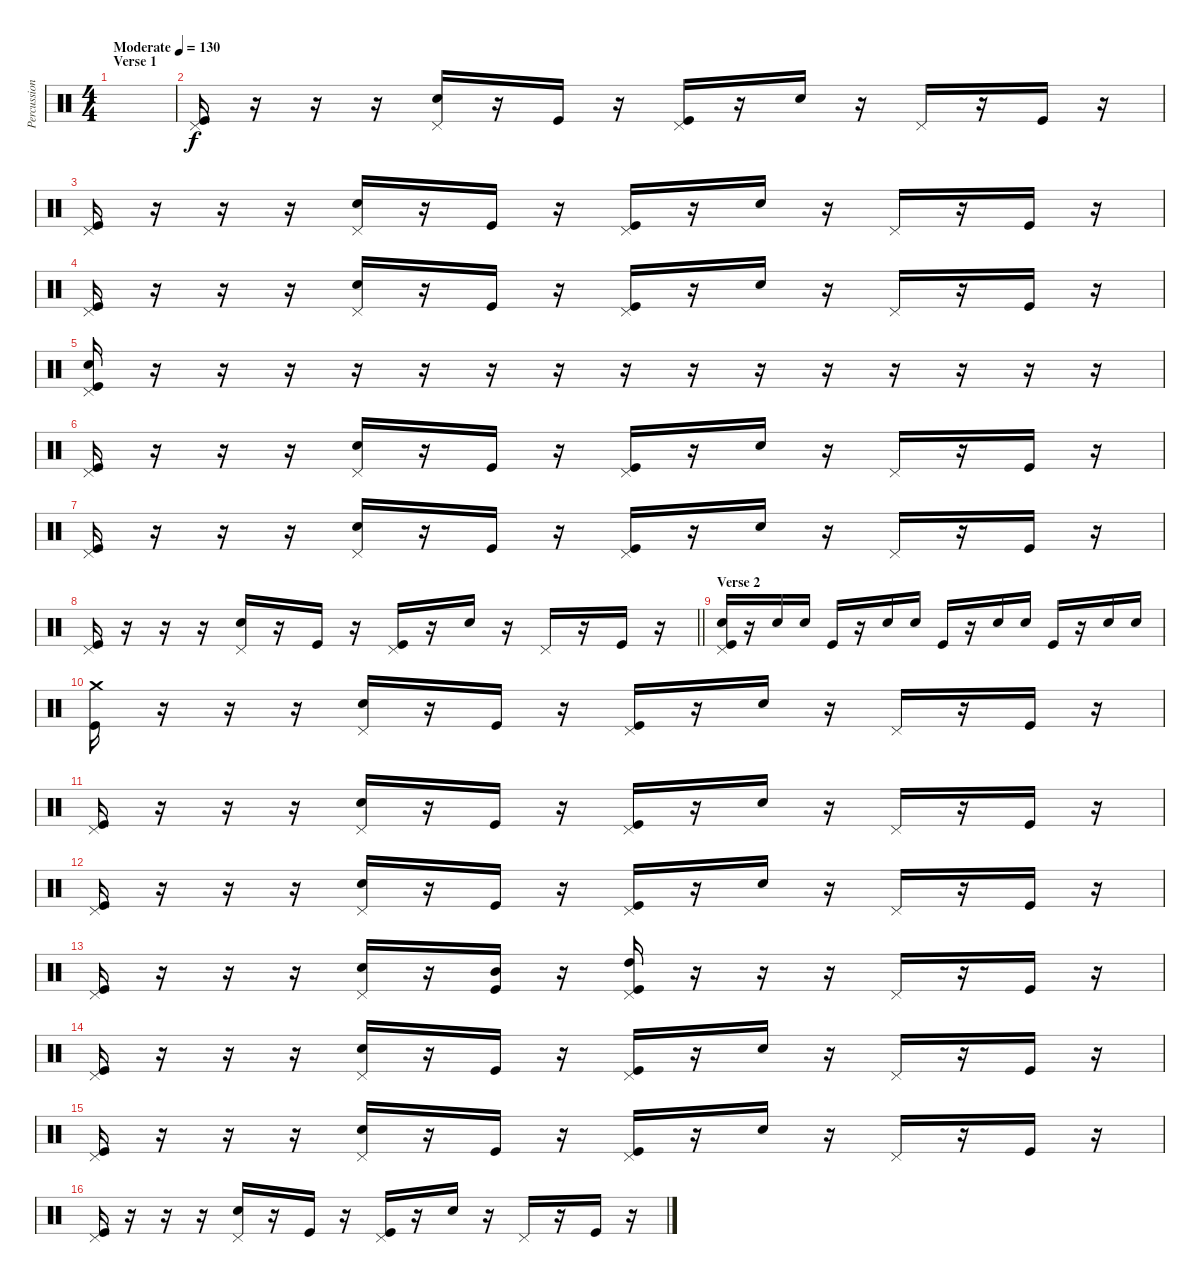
\track ("Percussion" "Percussion") {instrument percussion}
\staff {score}
\articulation defaults
\ts (4 4)
\section ("" "Verse 1")
\tempo (130 "Moderate")
\clef neutral
\ks c
|
("Pedal Hi-Hat (hit)" "Kick (hit)").16 r.16 r.16 r.16 ("Pedal Hi-Hat (hit)" "Electric Snare (hit)").16 r.16 "Kick (hit)".16 r.16 ("Pedal Hi-Hat (hit)" "Kick (hit)").16 r.16 "Electric Snare (hit)".16 r.16 "Pedal Hi-Hat (hit)".16 r.16 "Kick (hit)".16 r.16 |
("Pedal Hi-Hat (hit)" "Kick (hit)").16 r.16 r.16 r.16 ("Pedal Hi-Hat (hit)" "Electric Snare (hit)").16 r.16 "Kick (hit)".16 r.16 ("Pedal Hi-Hat (hit)" "Kick (hit)").16 r.16 "Electric Snare (hit)".16 r.16 "Pedal Hi-Hat (hit)".16 r.16 "Kick (hit)".16 r.16 |
("Pedal Hi-Hat (hit)" "Kick (hit)").16 r.16 r.16 r.16 ("Pedal Hi-Hat (hit)" "Electric Snare (hit)").16 r.16 "Kick (hit)".16 r.16 ("Pedal Hi-Hat (hit)" "Kick (hit)").16 r.16 "Electric Snare (hit)".16 r.16 "Pedal Hi-Hat (hit)".16 r.16 "Kick (hit)".16 r.16 |
("Pedal Hi-Hat (hit)" "Electric Snare (hit)" "Kick (hit)").16 r.16 r.16 r.16 r.16 r.16 r.16 r.16 r.16 r.16 r.16 r.16 r.16 r.16 r.16 r.16 |
("Pedal Hi-Hat (hit)" "Kick (hit)").16 r.16 r.16 r.16 ("Pedal Hi-Hat (hit)" "Electric Snare (hit)").16 r.16 "Kick (hit)".16 r.16 ("Pedal Hi-Hat (hit)" "Kick (hit)").16 r.16 "Electric Snare (hit)".16 r.16 "Pedal Hi-Hat (hit)".16 r.16 "Kick (hit)".16 r.16 |
("Pedal Hi-Hat (hit)" "Kick (hit)").16 r.16 r.16 r.16 ("Pedal Hi-Hat (hit)" "Electric Snare (hit)").16 r.16 "Kick (hit)".16 r.16 ("Pedal Hi-Hat (hit)" "Kick (hit)").16 r.16 "Electric Snare (hit)".16 r.16 "Pedal Hi-Hat (hit)".16 r.16 "Kick (hit)".16 r.16 |
\barLineRight lightlight
("Pedal Hi-Hat (hit)" "Kick (hit)").16 r.16 r.16 r.16 ("Pedal Hi-Hat (hit)" "Electric Snare (hit)").16 r.16 "Kick (hit)".16 r.16 ("Pedal Hi-Hat (hit)" "Kick (hit)").16 r.16 "Electric Snare (hit)".16 r.16 "Pedal Hi-Hat (hit)".16 r.16 "Kick (hit)".16 r.16 |
\section ("" "Verse 2")
("Pedal Hi-Hat (hit)" "Electric Snare (hit)" "Kick (hit)").16 r.16 "Electric Snare (hit)".16 "Electric Snare (hit)".16 "Kick (hit)".16 r.16 "Electric Snare (hit)".16 "Electric Snare (hit)".16 "Kick (hit)".16 r.16 "Electric Snare (hit)".16 "Electric Snare (hit)".16 "Kick (hit)".16 r.16 "Electric Snare (hit)".16 "Electric Snare (hit)".16 |
("Crash medium (hit)" "Kick (hit)").16 r.16 r.16 r.16 ("Pedal Hi-Hat (hit)" "Electric Snare (hit)").16 r.16 "Kick (hit)".16 r.16 ("Pedal Hi-Hat (hit)" "Kick (hit)").16 r.16 "Electric Snare (hit)".16 r.16 "Pedal Hi-Hat (hit)".16 r.16 "Kick (hit)".16 r.16 |
("Pedal Hi-Hat (hit)" "Kick (hit)").16 r.16 r.16 r.16 ("Pedal Hi-Hat (hit)" "Electric Snare (hit)").16 r.16 "Kick (hit)".16 r.16 ("Pedal Hi-Hat (hit)" "Kick (hit)").16 r.16 "Electric Snare (hit)".16 r.16 "Pedal Hi-Hat (hit)".16 r.16 "Kick (hit)".16 r.16 |
("Pedal Hi-Hat (hit)" "Kick (hit)").16 r.16 r.16 r.16 ("Pedal Hi-Hat (hit)" "Electric Snare (hit)").16 r.16 "Kick (hit)".16 r.16 ("Pedal Hi-Hat (hit)" "Kick (hit)").16 r.16 "Electric Snare (hit)".16 r.16 "Pedal Hi-Hat (hit)".16 r.16 "Kick (hit)".16 r.16 |
("Pedal Hi-Hat (hit)" "Kick (hit)").16 r.16 r.16 r.16 ("Pedal Hi-Hat (hit)" "Electric Snare (hit)").16 r.16 ("Mid Tom (hit)" "Kick (hit)").16 r.16 ("Pedal Hi-Hat (hit)" "High Tom (hit)" "Kick (hit)").16 r.16 r.16 r.16 "Pedal Hi-Hat (hit)".16 r.16 "Kick (hit)".16 r.16 |
("Pedal Hi-Hat (hit)" "Kick (hit)").16 r.16 r.16 r.16 ("Pedal Hi-Hat (hit)" "Electric Snare (hit)").16 r.16 "Kick (hit)".16 r.16 ("Pedal Hi-Hat (hit)" "Kick (hit)").16 r.16 "Electric Snare (hit)".16 r.16 "Pedal Hi-Hat (hit)".16 r.16 "Kick (hit)".16 r.16 |
("Pedal Hi-Hat (hit)" "Kick (hit)").16 r.16 r.16 r.16 ("Pedal Hi-Hat (hit)" "Electric Snare (hit)").16 r.16 "Kick (hit)".16 r.16 ("Pedal Hi-Hat (hit)" "Kick (hit)").16 r.16 "Electric Snare (hit)".16 r.16 "Pedal Hi-Hat (hit)".16 r.16 "Kick (hit)".16 r.16 |
("Pedal Hi-Hat (hit)" "Kick (hit)").16 r.16 r.16 r.16 ("Pedal Hi-Hat (hit)" "Electric Snare (hit)").16 r.16 "Kick (hit)".16 r.16 ("Pedal Hi-Hat (hit)" "Kick (hit)").16 r.16 "Electric Snare (hit)".16 r.16 "Pedal Hi-Hat (hit)".16 r.16 "Kick (hit)".16 r.16
